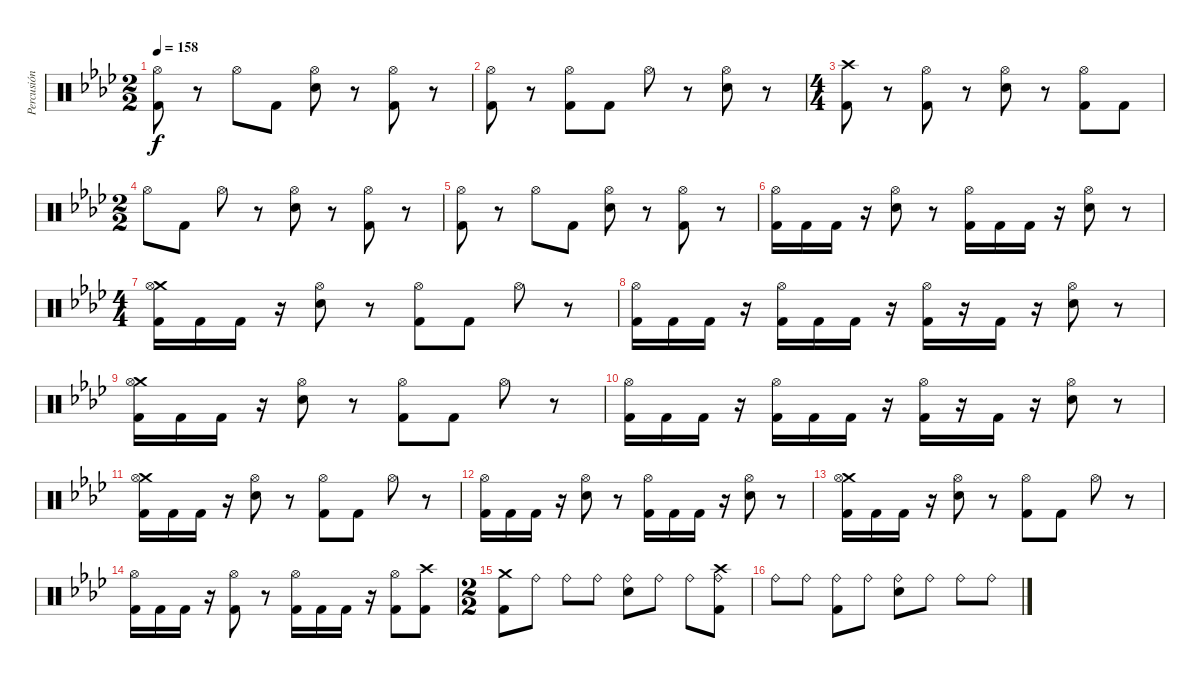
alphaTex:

\track ("Percusión" "Percusión") {instrument percussion}
\staff {score}
\articulation defaults
\ts (2 2)
\tempo 158
\clef neutral
\ks ab
("Hi-Hat (open)" "Kick (hit) 2").8{dy f} r.8 "Hi-Hat (open)".8 "Kick (hit) 2".8 ("Hi-Hat (open)" "Snare (hit) 2").8 r.8 ("Hi-Hat (open)" "Kick (hit) 2").8 r.8 |
("Hi-Hat (open)" "Kick (hit) 2").8 r.8 ("Hi-Hat (open)" "Kick (hit) 2").8 "Kick (hit) 2".8 "Hi-Hat (open)".8 r.8 ("Hi-Hat (open)" "Snare (hit) 2").8 r.8 |
\ts (4 4)
("Crash high (hit)" "Kick (hit) 2").8 r.8 ("Hi-Hat (open)" "Kick (hit) 2").8 r.8 ("Hi-Hat (open)" "Snare (hit) 2").8 r.8 ("Hi-Hat (open)" "Kick (hit) 2").8 "Kick (hit) 2".8 |
\ts (2 2)
"Hi-Hat (open)".8 "Kick (hit) 2".8 "Hi-Hat (open)".8 r.8 ("Hi-Hat (open)" "Snare (hit) 2").8 r.8 ("Hi-Hat (open)" "Kick (hit) 2").8 r.8 |
("Hi-Hat (open)" "Kick (hit) 2").8 r.8 "Hi-Hat (open)".8 "Kick (hit) 2".8 ("Hi-Hat (open)" "Snare (hit) 2").8 r.8 ("Hi-Hat (open)" "Kick (hit) 2").8 r.8 |
("Hi-Hat (open)" "Kick (hit) 2").16 "Kick (hit) 2".16 "Kick (hit) 2".16 r.16 ("Hi-Hat (open)" "Snare (hit) 2").8 r.8 ("Hi-Hat (open)" "Kick (hit) 2").16 "Kick (hit) 2".16 "Kick (hit) 2".16 r.16 ("Hi-Hat (open)" "Snare (hit) 2").8 r.8 |
\ts (4 4)
("Crash medium (hit)" "Hi-Hat (open)" "Kick (hit) 2").16 "Kick (hit) 2".16 "Kick (hit) 2".16 r.16 ("Hi-Hat (open)" "Snare (hit) 2").8 r.8 ("Hi-Hat (open)" "Kick (hit) 2").8 "Kick (hit) 2".8 "Hi-Hat (open)".8 r.8 |
("Hi-Hat (open)" "Kick (hit) 2").16 "Kick (hit) 2".16 "Kick (hit) 2".16 r.16 ("Hi-Hat (open)" "Kick (hit) 2").16 "Kick (hit) 2".16 "Kick (hit) 2".16 r.16 ("Hi-Hat (open)" "Kick (hit) 2").16 r.16 "Kick (hit) 2".16 r.16 ("Hi-Hat (open)" "Snare (hit) 2").8 r.8 |
("Crash medium (hit)" "Hi-Hat (open)" "Kick (hit) 2").16 "Kick (hit) 2".16 "Kick (hit) 2".16 r.16 ("Hi-Hat (open)" "Snare (hit) 2").8 r.8 ("Hi-Hat (open)" "Kick (hit) 2").8 "Kick (hit) 2".8 "Hi-Hat (open)".8 r.8 |
("Hi-Hat (open)" "Kick (hit) 2").16 "Kick (hit) 2".16 "Kick (hit) 2".16 r.16 ("Hi-Hat (open)" "Kick (hit) 2").16 "Kick (hit) 2".16 "Kick (hit) 2".16 r.16 ("Hi-Hat (open)" "Kick (hit) 2").16 r.16 "Kick (hit) 2".16 r.16 ("Hi-Hat (open)" "Snare (hit) 2").8 r.8 |
("Crash medium (hit)" "Hi-Hat (open)" "Kick (hit) 2").16 "Kick (hit) 2".16 "Kick (hit) 2".16 r.16 ("Hi-Hat (open)" "Snare (hit) 2").8 r.8 ("Hi-Hat (open)" "Kick (hit) 2").8 "Kick (hit) 2".8 "Hi-Hat (open)".8 r.8 |
("Hi-Hat (open)" "Kick (hit) 2").16 "Kick (hit) 2".16 "Kick (hit) 2".16 r.16 ("Hi-Hat (open)" "Snare (hit) 2").8 r.8 ("Hi-Hat (open)" "Kick (hit) 2").16 "Kick (hit) 2".16 "Kick (hit) 2".16 r.16 ("Hi-Hat (open)" "Snare (hit) 2").8 r.8 |
("Crash medium (hit)" "Hi-Hat (open)" "Kick (hit) 2").16 "Kick (hit) 2".16 "Kick (hit) 2".16 r.16 ("Hi-Hat (open)" "Snare (hit) 2").8 r.8 ("Hi-Hat (open)" "Kick (hit) 2").8 "Kick (hit) 2".8 "Hi-Hat (open)".8 r.8 |
("Hi-Hat (open)" "Kick (hit) 2").16 "Kick (hit) 2".16 "Kick (hit) 2".16 r.16 ("Hi-Hat (open)" "Kick (hit) 2").8 r.8 ("Hi-Hat (open)" "Kick (hit) 2").16 "Kick (hit) 2".16 "Kick (hit) 2".16 r.16 ("Hi-Hat (open)" "Kick (hit) 2").8 ("Crash high (hit)" "Kick (hit) 2").8 |
\ts (2 2)
("Crash medium (hit)" "Kick (hit) 2").8 "Ride (bell)".8 "Ride (bell)".8 "Ride (bell)".8 ("Ride (bell)" "Snare (hit) 2").8 "Ride (bell)".8 "Ride (bell)".8 ("Crash high (hit)" "Ride (bell)" "Kick (hit) 2").8 |
"Ride (bell)".8 "Ride (bell)".8 ("Ride (bell)" "Kick (hit) 2").8 "Ride (bell)".8 ("Ride (bell)" "Snare (hit) 2").8 "Ride (bell)".8 "Ride (bell)".8 "Ride (bell)".8
